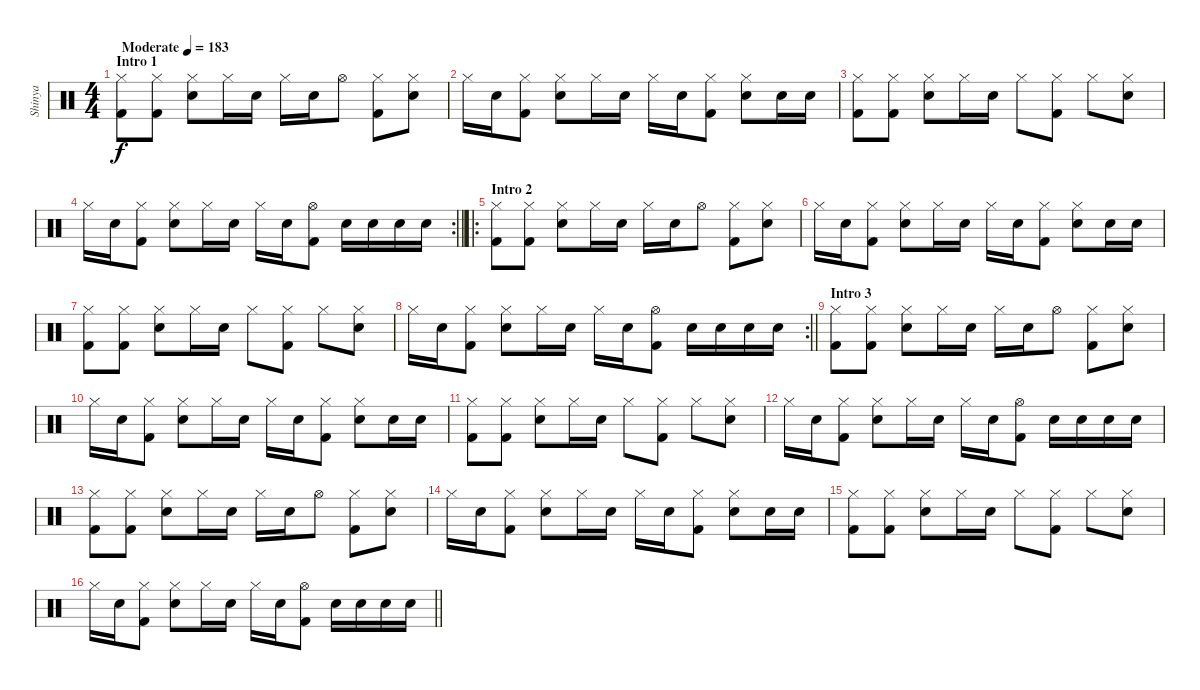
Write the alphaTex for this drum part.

\track ("Shinya" "Shinya") {instrument percussion}
\staff {score}
\articulation defaults
\ts (4 4)
\section ("" "Intro 1")
\tempo (183 "Moderate")
\clef neutral
\ks c
("Hi-Hat (closed)" "Kick (hit) 2").8{dy f} ("Hi-Hat (closed)" "Kick (hit) 2").8 ("Hi-Hat (closed)" "Snare (hit) 2").8 "Hi-Hat (closed)".16 "Snare (hit) 2".16 "Hi-Hat (closed)".16 "Snare (hit) 2".16 "Hi-Hat (open)".8 ("Hi-Hat (closed)" "Kick (hit) 2").8 ("Hi-Hat (closed)" "Snare (hit) 2").8 |
"Hi-Hat (closed)".16 "Snare (hit) 2".16 ("Hi-Hat (closed)" "Kick (hit) 2").8 ("Hi-Hat (closed)" "Snare (hit) 2").8 "Hi-Hat (closed)".16 "Snare (hit) 2".16 "Hi-Hat (closed)".16 "Snare (hit) 2".16 ("Hi-Hat (closed)" "Kick (hit) 2").8 ("Hi-Hat (closed)" "Snare (hit) 2").8 "Snare (hit) 2".16 "Snare (hit) 2".16 |
("Hi-Hat (closed)" "Kick (hit) 2").8 ("Hi-Hat (closed)" "Kick (hit) 2").8 ("Hi-Hat (closed)" "Snare (hit) 2").8 "Hi-Hat (closed)".16 "Snare (hit) 2".16 "Hi-Hat (closed)".8 ("Hi-Hat (closed)" "Kick (hit) 2").8 "Hi-Hat (closed)".8 ("Hi-Hat (closed)" "Snare (hit) 2").8 |
\rc 2
\barLineRight lightlight "Hi-Hat (closed)".16 "Snare (hit) 2".16
("Hi-Hat (closed)" "Kick (hit) 2").8 ("Hi-Hat (closed)" "Snare (hit) 2").8 "Hi-Hat (closed)".16 "Snare (hit) 2".16 "Hi-Hat (closed)".16 "Snare (hit) 2".16 ("Hi-Hat (open)" "Kick (hit) 2").8 "Snare (hit) 2".16 "Snare (hit) 2".16 "Snare (hit) 2".16 "Snare (hit) 2".16 |
\ro
\section ("" "Intro 2")
("Hi-Hat (closed)" "Kick (hit) 2").8 ("Hi-Hat (closed)" "Kick (hit) 2").8 ("Hi-Hat (closed)" "Snare (hit) 2").8 "Hi-Hat (closed)".16 "Snare (hit) 2".16 "Hi-Hat (closed)".16 "Snare (hit) 2".16 "Hi-Hat (open)".8 ("Hi-Hat (closed)" "Kick (hit) 2").8 ("Hi-Hat (closed)" "Snare (hit) 2").8 |
"Hi-Hat (closed)".16 "Snare (hit) 2".16 ("Hi-Hat (closed)" "Kick (hit) 2").8 ("Hi-Hat (closed)" "Snare (hit) 2").8 "Hi-Hat (closed)".16 "Snare (hit) 2".16 "Hi-Hat (closed)".16 "Snare (hit) 2".16 ("Hi-Hat (closed)" "Kick (hit) 2").8 ("Hi-Hat (closed)" "Snare (hit) 2").8 "Snare (hit) 2".16 "Snare (hit) 2".16 |
("Hi-Hat (closed)" "Kick (hit) 2").8 ("Hi-Hat (closed)" "Kick (hit) 2").8 ("Hi-Hat (closed)" "Snare (hit) 2").8 "Hi-Hat (closed)".16 "Snare (hit) 2".16 "Hi-Hat (closed)".8 ("Hi-Hat (closed)" "Kick (hit) 2").8 "Hi-Hat (closed)".8 ("Hi-Hat (closed)" "Snare (hit) 2").8 |
\rc 2
\barLineRight lightlight "Hi-Hat (closed)".16 "Snare (hit) 2".16
("Hi-Hat (closed)" "Kick (hit) 2").8 ("Hi-Hat (closed)" "Snare (hit) 2").8 "Hi-Hat (closed)".16 "Snare (hit) 2".16 "Hi-Hat (closed)".16 "Snare (hit) 2".16 ("Hi-Hat (open)" "Kick (hit) 2").8 "Snare (hit) 2".16 "Snare (hit) 2".16 "Snare (hit) 2".16 "Snare (hit) 2".16 |
\section ("" "Intro 3")
("Hi-Hat (closed)" "Kick (hit) 2").8 ("Hi-Hat (closed)" "Kick (hit) 2").8 ("Hi-Hat (closed)" "Snare (hit) 2").8 "Hi-Hat (closed)".16 "Snare (hit) 2".16 "Hi-Hat (closed)".16 "Snare (hit) 2".16 "Hi-Hat (open)".8 ("Hi-Hat (closed)" "Kick (hit) 2").8 ("Hi-Hat (closed)" "Snare (hit) 2").8 |
"Hi-Hat (closed)".16 "Snare (hit) 2".16 ("Hi-Hat (closed)" "Kick (hit) 2").8 ("Hi-Hat (closed)" "Snare (hit) 2").8 "Hi-Hat (closed)".16 "Snare (hit) 2".16 "Hi-Hat (closed)".16 "Snare (hit) 2".16 ("Hi-Hat (closed)" "Kick (hit) 2").8 ("Hi-Hat (closed)" "Snare (hit) 2").8 "Snare (hit) 2".16 "Snare (hit) 2".16 |
("Hi-Hat (closed)" "Kick (hit) 2").8 ("Hi-Hat (closed)" "Kick (hit) 2").8 ("Hi-Hat (closed)" "Snare (hit) 2").8 "Hi-Hat (closed)".16 "Snare (hit) 2".16 "Hi-Hat (closed)".8 ("Hi-Hat (closed)" "Kick (hit) 2").8 "Hi-Hat (closed)".8 ("Hi-Hat (closed)" "Snare (hit) 2").8 |
"Hi-Hat (closed)".16 "Snare (hit) 2".16 ("Hi-Hat (closed)" "Kick (hit) 2").8 ("Hi-Hat (closed)" "Snare (hit) 2").8 "Hi-Hat (closed)".16 "Snare (hit) 2".16 "Hi-Hat (closed)".16 "Snare (hit) 2".16 ("Hi-Hat (open)" "Kick (hit) 2").8 "Snare (hit) 2".16 "Snare (hit) 2".16 "Snare (hit) 2".16 "Snare (hit) 2".16 |
("Hi-Hat (closed)" "Kick (hit) 2").8 ("Hi-Hat (closed)" "Kick (hit) 2").8 ("Hi-Hat (closed)" "Snare (hit) 2").8 "Hi-Hat (closed)".16 "Snare (hit) 2".16 "Hi-Hat (closed)".16 "Snare (hit) 2".16 "Hi-Hat (open)".8 ("Hi-Hat (closed)" "Kick (hit) 2").8 ("Hi-Hat (closed)" "Snare (hit) 2").8 |
"Hi-Hat (closed)".16 "Snare (hit) 2".16 ("Hi-Hat (closed)" "Kick (hit) 2").8 ("Hi-Hat (closed)" "Snare (hit) 2").8 "Hi-Hat (closed)".16 "Snare (hit) 2".16 "Hi-Hat (closed)".16 "Snare (hit) 2".16 ("Hi-Hat (closed)" "Kick (hit) 2").8 ("Hi-Hat (closed)" "Snare (hit) 2").8 "Snare (hit) 2".16 "Snare (hit) 2".16 |
("Hi-Hat (closed)" "Kick (hit) 2").8 ("Hi-Hat (closed)" "Kick (hit) 2").8 ("Hi-Hat (closed)" "Snare (hit) 2").8 "Hi-Hat (closed)".16 "Snare (hit) 2".16 "Hi-Hat (closed)".8 ("Hi-Hat (closed)" "Kick (hit) 2").8 "Hi-Hat (closed)".8 ("Hi-Hat (closed)" "Snare (hit) 2").8 |
\barLineRight lightlight "Hi-Hat (closed)".16 "Snare (hit) 2".16
("Hi-Hat (closed)" "Kick (hit) 2").8 ("Hi-Hat (closed)" "Snare (hit) 2").8 "Hi-Hat (closed)".16 "Snare (hit) 2".16 "Hi-Hat (closed)".16 "Snare (hit) 2".16 ("Hi-Hat (open)" "Kick (hit) 2").8 "Snare (hit) 2".16 "Snare (hit) 2".16 "Snare (hit) 2".16 "Snare (hit) 2".16
